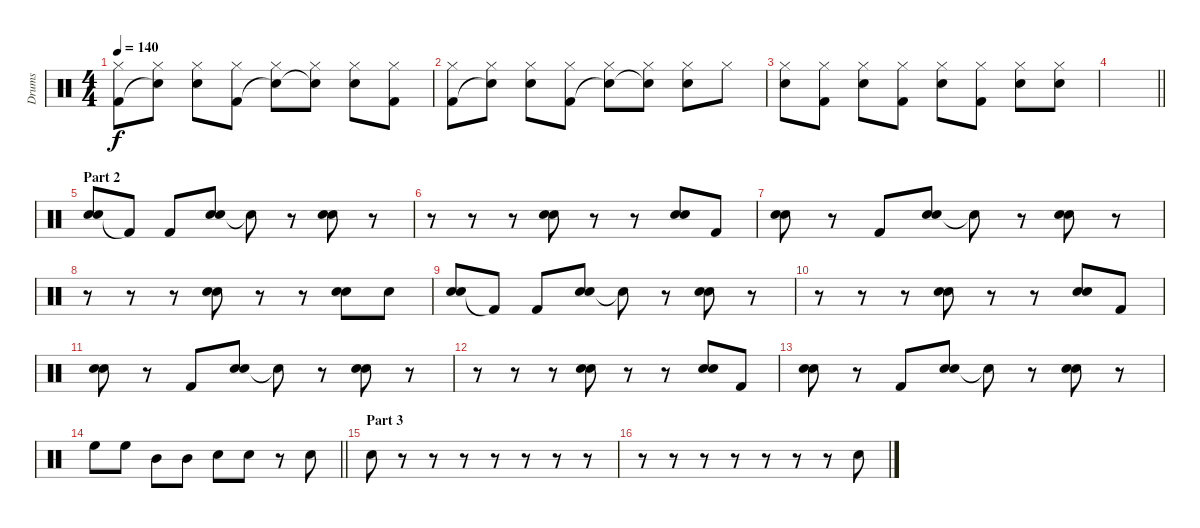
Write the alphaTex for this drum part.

\track ("Drums" "Drums") {instrument percussion}
\staff {score}
\articulation defaults
\ts (4 4)
\tempo 140
\clef neutral
\ks c
("Hi-Hat (closed)" "Kick (hit) 2").8{dy f} ("Hi-Hat (closed)" "Snare (hit)"{t}).8 ("Hi-Hat (closed)" "Snare (hit) 2").8 ("Hi-Hat (closed)" "Kick (hit) 2").8 ("Hi-Hat (closed)" "Snare (hit)"{t}).8 ("Hi-Hat (closed)" "Snare (hit) 2"{t}).8 ("Hi-Hat (closed)" "Snare (hit) 2").8 ("Hi-Hat (closed)" "Kick (hit) 2").8 |
("Hi-Hat (closed)" "Kick (hit) 2").8 ("Hi-Hat (closed)" "Snare (hit)"{t}).8 ("Hi-Hat (closed)" "Snare (hit) 2").8 ("Hi-Hat (closed)" "Kick (hit) 2").8 ("Hi-Hat (closed)" "Snare (hit)"{t}).8 ("Hi-Hat (closed)" "Snare (hit) 2"{t}).8 ("Hi-Hat (closed)" "Snare (hit) 2").8 "Hi-Hat (closed)".8 |
("Hi-Hat (closed)" "Snare (hit) 2").8 ("Hi-Hat (closed)" "Kick (hit) 2").8 ("Hi-Hat (closed)" "Snare (hit) 2").8 ("Hi-Hat (closed)" "Kick (hit) 2").8 ("Hi-Hat (closed)" "Snare (hit) 2").8 ("Hi-Hat (closed)" "Kick (hit) 2").8 ("Hi-Hat (closed)" "Snare (hit) 2").8 ("Hi-Hat (closed)" "Snare (hit) 2").8 |
\barLineRight lightlight
|
\section ("" "Part 2")
("Snare (hit) 2" "Hand Clap (hit)").8 "Kick (hit) 2"{t}.8 "Kick (hit) 2".8 ("Snare (hit) 2" "Hand Clap (hit)").8 "Snare (hit)"{t}.8 r.8 ("Snare (hit) 2" "Hand Clap (hit)").8 r.8 |
r.8 r.8 r.8 ("Snare (hit) 2" "Hand Clap (hit)").8 r.8 r.8 ("Snare (hit) 2" "Hand Clap (hit)").8 "Kick (hit) 2".8 |
("Snare (hit) 2" "Hand Clap (hit)").8 r.8 "Kick (hit) 2".8 ("Snare (hit) 2" "Hand Clap (hit)").8 "Snare (hit)"{t}.8 r.8 ("Snare (hit) 2" "Hand Clap (hit)").8 r.8 |
r.8 r.8 r.8 ("Snare (hit) 2" "Hand Clap (hit)").8 r.8 r.8 ("Snare (hit) 2" "Hand Clap (hit)").8 "Hand Clap (hit)".8 |
("Snare (hit) 2" "Hand Clap (hit)").8 "Kick (hit) 2"{t}.8 "Kick (hit) 2".8 ("Snare (hit) 2" "Hand Clap (hit)").8 "Snare (hit)"{t}.8 r.8 ("Snare (hit) 2" "Hand Clap (hit)").8 r.8 |
r.8 r.8 r.8 ("Snare (hit) 2" "Hand Clap (hit)").8 r.8 r.8 ("Snare (hit) 2" "Hand Clap (hit)").8 "Kick (hit) 2".8 |
("Snare (hit) 2" "Hand Clap (hit)").8 r.8 "Kick (hit) 2".8 ("Snare (hit) 2" "Hand Clap (hit)").8 "Snare (hit)"{t}.8 r.8 ("Snare (hit) 2" "Hand Clap (hit)").8 r.8 |
r.8 r.8 r.8 ("Snare (hit) 2" "Hand Clap (hit)").8 r.8 r.8 ("Snare (hit) 2" "Hand Clap (hit)").8 "Kick (hit) 2".8 |
("Snare (hit) 2" "Hand Clap (hit)").8 r.8 "Kick (hit) 2".8 ("Snare (hit) 2" "Hand Clap (hit)").8 "Snare (hit)"{t}.8 r.8 ("Snare (hit) 2" "Hand Clap (hit)").8 r.8 |
\barLineRight lightlight "High Floor Tom (hit)".8 "High Floor Tom (hit)".8 "Mid Tom (hit)".8 "Mid Tom (hit)".8 "Snare (hit) 2".8 "Snare (hit) 2".8
r.8 "Snare (hit) 2".8 |
\section ("" "Part 3")
"Snare (hit) 2".8 r.8 r.8 r.8 r.8 r.8 r.8 r.8 |
r.8 r.8 r.8 r.8 r.8 r.8 r.8 "Snare (hit) 2".8
